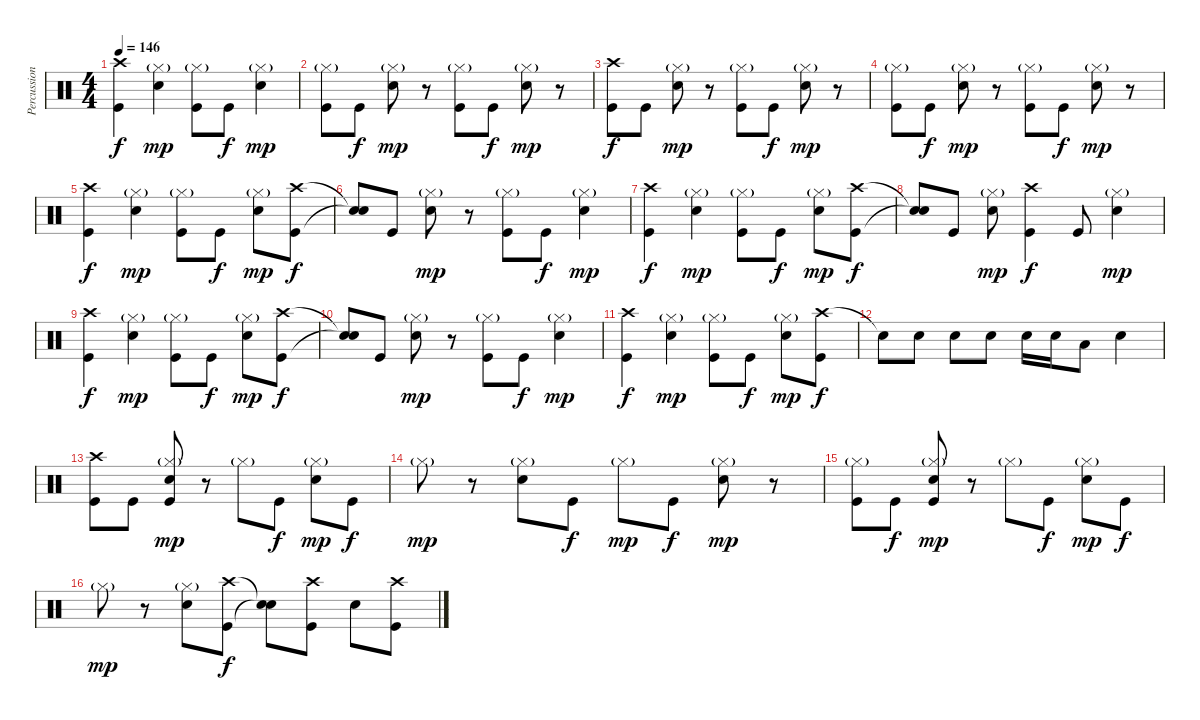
\track ("Percussion" "Percussion") {instrument percussion}
\staff {score}
\articulation defaults
\ts (4 4)
\tempo 146
\clef neutral
\ks c
("Crash high (hit)" "Kick (hit)").4{dy f} ("Hi-Hat (closed)"{g} "Snare (hit) 2").4{dy mp} ("Hi-Hat (closed)"{g} "Kick (hit)").8 "Kick (hit)".8{dy f} ("Hi-Hat (closed)"{g} "Snare (hit) 2").4{dy mp} |
("Hi-Hat (closed)"{g} "Kick (hit)").8 "Kick (hit)".8{dy f} ("Hi-Hat (closed)"{g} "Snare (hit) 2").8{dy mp} r.8 ("Hi-Hat (closed)"{g} "Kick (hit)").8 "Kick (hit)".8{dy f} ("Hi-Hat (closed)"{g} "Snare (hit) 2").8{dy mp} r.8 |
("Crash high (hit)" "Kick (hit)").8{dy f} "Kick (hit)".8 ("Hi-Hat (closed)"{g} "Snare (hit) 2").8{dy mp} r.8 ("Hi-Hat (closed)"{g} "Kick (hit)").8 "Kick (hit)".8{dy f} ("Hi-Hat (closed)"{g} "Snare (hit) 2").8{dy mp} r.8 |
("Hi-Hat (closed)"{g} "Kick (hit)").8 "Kick (hit)".8{dy f} ("Hi-Hat (closed)"{g} "Snare (hit) 2").8{dy mp} r.8 ("Hi-Hat (closed)"{g} "Kick (hit)").8 "Kick (hit)".8{dy f} ("Hi-Hat (closed)"{g} "Snare (hit) 2").8{dy mp} r.8 |
("Crash high (hit)" "Kick (hit)").4{dy f} ("Hi-Hat (closed)"{g} "Snare (hit) 2").4{dy mp} ("Hi-Hat (closed)"{g} "Kick (hit)").8 "Kick (hit)".8{dy f} ("Hi-Hat (closed)"{g} "Snare (hit) 2").8{dy mp} ("Crash high (hit)" "Kick (hit)").8{dy f} |
("Snare (hit)"{t} "Snare (hit)"{t}).8 "Kick (hit)".8 ("Hi-Hat (closed)"{g} "Snare (hit) 2").8{dy mp} r.8 ("Hi-Hat (closed)"{g} "Kick (hit)").8 "Kick (hit)".8{dy f} ("Hi-Hat (closed)"{g} "Snare (hit) 2").4{dy mp} |
("Crash high (hit)" "Kick (hit)").4{dy f} ("Hi-Hat (closed)"{g} "Snare (hit) 2").4{dy mp} ("Hi-Hat (closed)"{g} "Kick (hit)").8 "Kick (hit)".8{dy f} ("Hi-Hat (closed)"{g} "Snare (hit) 2").8{dy mp} ("Crash high (hit)" "Kick (hit)").8{dy f} |
("Snare (hit)"{t} "Snare (hit)"{t}).8 "Kick (hit)".8 ("Hi-Hat (closed)"{g} "Snare (hit) 2").8{dy mp} ("Crash high (hit)" "Kick (hit)").4{dy f} "Kick (hit)".8 ("Hi-Hat (closed)"{g} "Snare (hit) 2").4{dy mp} |
("Crash high (hit)" "Kick (hit)").4{dy f} ("Hi-Hat (closed)"{g} "Snare (hit) 2").4{dy mp} ("Hi-Hat (closed)"{g} "Kick (hit)").8 "Kick (hit)".8{dy f} ("Hi-Hat (closed)"{g} "Snare (hit) 2").8{dy mp} ("Crash high (hit)" "Kick (hit)").8{dy f} |
("Snare (hit)"{t} "Snare (hit)"{t}).8 "Kick (hit)".8 ("Hi-Hat (closed)"{g} "Snare (hit) 2").8{dy mp} r.8 ("Hi-Hat (closed)"{g} "Kick (hit)").8 "Kick (hit)".8{dy f} ("Hi-Hat (closed)"{g} "Snare (hit) 2").4{dy mp} |
("Crash high (hit)" "Kick (hit)").4{dy f} ("Hi-Hat (closed)"{g} "Snare (hit) 2").4{dy mp} ("Hi-Hat (closed)"{g} "Kick (hit)").8 "Kick (hit)".8{dy f} ("Hi-Hat (closed)"{g} "Snare (hit) 2").8{dy mp} ("Crash high (hit)" "Kick (hit)").8{dy f} |
"Snare (hit)"{t}.8 "Snare (hit) 2".8 "Snare (hit) 2".8 "Snare (hit) 2".8 "Snare (hit) 2".16 "Snare (hit) 2".16 "Low Tom (hit)".8 "Snare (hit) 2".4 |
("Crash high (hit)" "Kick (hit)").8 "Kick (hit)".8 ("Hi-Hat (closed)"{g} "Snare (hit) 2" "Kick (hit)").8{dy mp} r.8 "Hi-Hat (closed)"{g}.8 "Kick (hit)".8{dy f} ("Hi-Hat (closed)"{g} "Snare (hit) 2").8{dy mp} "Kick (hit)".8{dy f} |
"Hi-Hat (closed)"{g}.8{dy mp} r.8 ("Hi-Hat (closed)"{g} "Snare (hit) 2").8 "Kick (hit)".8{dy f} "Hi-Hat (closed)"{g}.8{dy mp} "Kick (hit)".8{dy f} ("Hi-Hat (closed)"{g} "Snare (hit) 2").8{dy mp} r.8 |
("Hi-Hat (closed)"{g} "Kick (hit)").8 "Kick (hit)".8{dy f} ("Hi-Hat (closed)"{g} "Snare (hit) 2" "Kick (hit)").8{dy mp} r.8 "Hi-Hat (closed)"{g}.8 "Kick (hit)".8{dy f} ("Hi-Hat (closed)"{g} "Snare (hit) 2").8{dy mp} "Kick (hit)".8{dy f} |
"Hi-Hat (closed)"{g}.8{dy mp} r.8 ("Hi-Hat (closed)"{g} "Snare (hit) 2").8 ("Crash high (hit)" "Kick (hit)").8{dy f} ("Snare (hit)"{t} "Snare (hit)"{t}).8 ("Crash high (hit)" "Kick (hit)").8 "Snare (hit) 2".8 ("Crash high (hit)" "Kick (hit)").8
